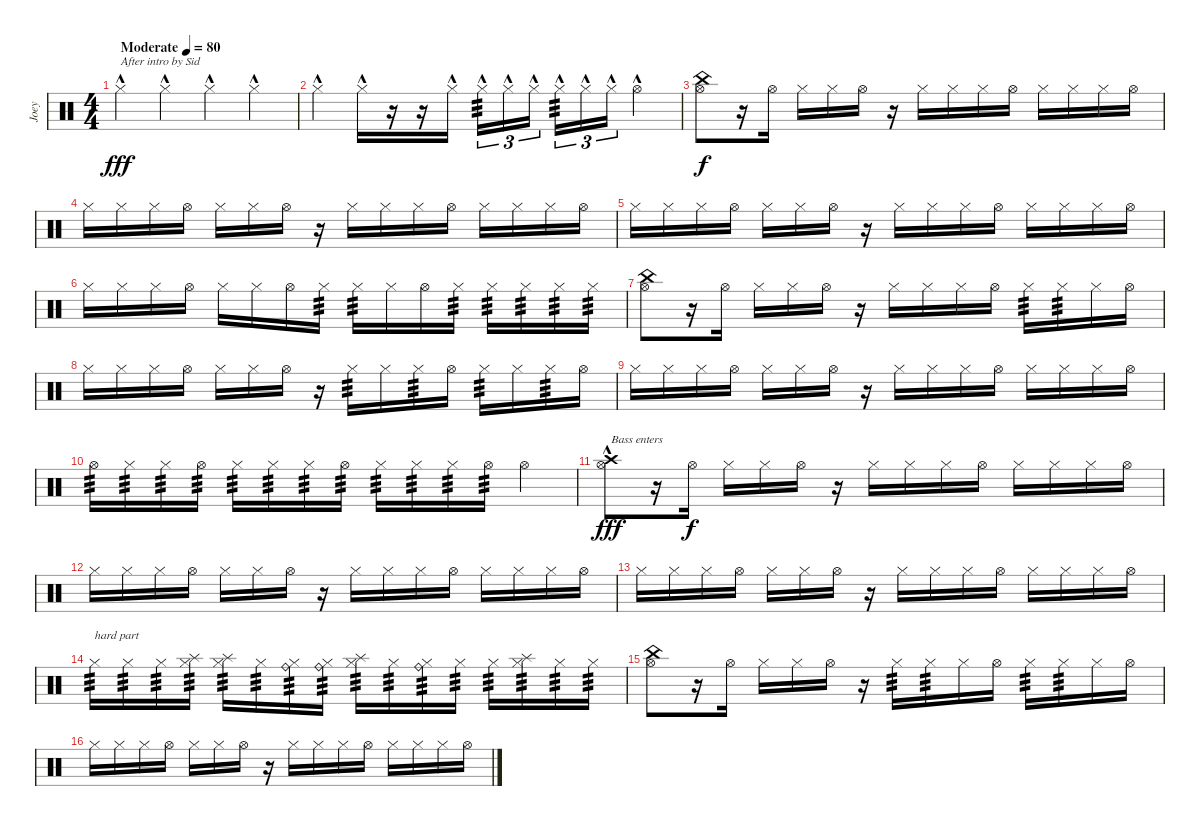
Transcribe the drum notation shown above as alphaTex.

\track ("Joey" "Joey") {instrument percussion}
\staff {score}
\articulation defaults
\ts (4 4)
\tempo (80 "Moderate")
\clef neutral
\ks c "Hi-Hat (closed)"{hac}.4{txt "After intro by Sid" dy fff} "Hi-Hat (closed)"{hac}.4 "Hi-Hat (closed)"{hac}.4 "Hi-Hat (closed)"{hac}.4
|
"Hi-Hat (closed)"{hac}.4 "Hi-Hat (closed)"{hac}.16 r.16 r.16 "Hi-Hat (closed)"{hac}.16 "Hi-Hat (closed)"{hac}.16{tu (3 2) tp 3} "Hi-Hat (closed)"{hac}.16{tu (3 2)} "Hi-Hat (closed)"{hac}.16{tu (3 2) beam splitsecondary} "Hi-Hat (closed)"{hac}.16{tu (3 2) tp 3} "Hi-Hat (closed)"{hac}.16{tu (3 2)} "Hi-Hat (closed)"{hac}.16{tu (3 2)} "Hi-Hat (open)"{hac}.4 |
("Hi-Hat (open)" "China (hit)").8{dy f} r.16 "Hi-Hat (open)".16 "Hi-Hat (closed)".16 "Hi-Hat (closed)".16 "Hi-Hat (open)".16 r.16 "Hi-Hat (closed)".16 "Hi-Hat (closed)".16 "Hi-Hat (closed)".16 "Hi-Hat (open)".16 "Hi-Hat (closed)".16 "Hi-Hat (closed)".16 "Hi-Hat (closed)".16 "Hi-Hat (open)".16 |
"Hi-Hat (closed)".16 "Hi-Hat (closed)".16 "Hi-Hat (closed)".16 "Hi-Hat (open)".16 "Hi-Hat (closed)".16 "Hi-Hat (closed)".16 "Hi-Hat (open)".16 r.16 "Hi-Hat (closed)".16 "Hi-Hat (closed)".16 "Hi-Hat (closed)".16 "Hi-Hat (open)".16 "Hi-Hat (closed)".16 "Hi-Hat (closed)".16 "Hi-Hat (closed)".16 "Hi-Hat (open)".16 |
"Hi-Hat (closed)".16 "Hi-Hat (closed)".16 "Hi-Hat (closed)".16 "Hi-Hat (open)".16 "Hi-Hat (closed)".16 "Hi-Hat (closed)".16 "Hi-Hat (open)".16 r.16 "Hi-Hat (closed)".16 "Hi-Hat (closed)".16 "Hi-Hat (closed)".16 "Hi-Hat (open)".16 "Hi-Hat (closed)".16 "Hi-Hat (closed)".16 "Hi-Hat (closed)".16 "Hi-Hat (open)".16 |
"Hi-Hat (closed)".16 "Hi-Hat (closed)".16 "Hi-Hat (closed)".16 "Hi-Hat (open)".16 "Hi-Hat (closed)".16 "Hi-Hat (closed)".16 "Hi-Hat (open)".16 "Hi-Hat (closed)".16{tp 3} "Hi-Hat (closed)".16{tp 3} "Hi-Hat (closed)".16 "Hi-Hat (open)".16 "Hi-Hat (closed)".16{tp 3} "Hi-Hat (closed)".16{tp 3} "Hi-Hat (closed)".16{tp 3} "Hi-Hat (closed)".16{tp 3} "Hi-Hat (closed)".16{tp 3} |
("Hi-Hat (open)" "China (hit)").8 r.16 "Hi-Hat (open)".16 "Hi-Hat (closed)".16 "Hi-Hat (closed)".16 "Hi-Hat (open)".16 r.16 "Hi-Hat (closed)".16 "Hi-Hat (closed)".16 "Hi-Hat (closed)".16 "Hi-Hat (open)".16 "Hi-Hat (closed)".16{tp 3} "Hi-Hat (closed)".16{tp 3} "Hi-Hat (closed)".16 "Hi-Hat (open)".16 |
"Hi-Hat (closed)".16 "Hi-Hat (closed)".16 "Hi-Hat (closed)".16 "Hi-Hat (open)".16 "Hi-Hat (closed)".16 "Hi-Hat (closed)".16 "Hi-Hat (open)".16 r.16 "Hi-Hat (closed)".16{tp 3} "Hi-Hat (closed)".16 "Hi-Hat (closed)".16{tp 3} "Hi-Hat (open)".16 "Hi-Hat (closed)".16{tp 3} "Hi-Hat (closed)".16 "Hi-Hat (closed)".16{tp 3} "Hi-Hat (open)".16 |
"Hi-Hat (closed)".16 "Hi-Hat (closed)".16 "Hi-Hat (closed)".16 "Hi-Hat (open)".16 "Hi-Hat (closed)".16 "Hi-Hat (closed)".16 "Hi-Hat (open)".16 r.16 "Hi-Hat (closed)".16 "Hi-Hat (closed)".16 "Hi-Hat (closed)".16 "Hi-Hat (open)".16 "Hi-Hat (closed)".16 "Hi-Hat (closed)".16 "Hi-Hat (closed)".16 "Hi-Hat (open)".16 |
"Hi-Hat (open)".16{tp 3} "Hi-Hat (closed)".16{tp 3} "Hi-Hat (closed)".16{tp 3} "Hi-Hat (open)".16{tp 3} "Hi-Hat (closed)".16{tp 3} "Hi-Hat (closed)".16{tp 3} "Hi-Hat (closed)".16{tp 3} "Hi-Hat (open)".16{tp 3} "Hi-Hat (closed)".16{tp 3} "Hi-Hat (closed)".16{tp 3} "Hi-Hat (closed)".16{tp 3} "Hi-Hat (open)".16{tp 3} "Hi-Hat (open)".4 |
("Hi-Hat (open)" "Crash high (hit)"{hac}).8{txt "Bass enters" dy fff} r.16 "Hi-Hat (open)".16{dy f} "Hi-Hat (closed)".16 "Hi-Hat (closed)".16 "Hi-Hat (open)".16 r.16 "Hi-Hat (closed)".16 "Hi-Hat (closed)".16 "Hi-Hat (closed)".16 "Hi-Hat (open)".16 "Hi-Hat (closed)".16 "Hi-Hat (closed)".16 "Hi-Hat (closed)".16 "Hi-Hat (open)".16 |
"Hi-Hat (closed)".16 "Hi-Hat (closed)".16 "Hi-Hat (closed)".16 "Hi-Hat (open)".16 "Hi-Hat (closed)".16 "Hi-Hat (closed)".16 "Hi-Hat (open)".16 r.16 "Hi-Hat (closed)".16 "Hi-Hat (closed)".16 "Hi-Hat (closed)".16 "Hi-Hat (open)".16 "Hi-Hat (closed)".16 "Hi-Hat (closed)".16 "Hi-Hat (closed)".16 "Hi-Hat (open)".16 |
"Hi-Hat (closed)".16 "Hi-Hat (closed)".16 "Hi-Hat (closed)".16 "Hi-Hat (open)".16 "Hi-Hat (closed)".16 "Hi-Hat (closed)".16 "Hi-Hat (open)".16 r.16 "Hi-Hat (closed)".16 "Hi-Hat (closed)".16 "Hi-Hat (closed)".16 "Hi-Hat (open)".16 "Hi-Hat (closed)".16 "Hi-Hat (closed)".16 "Hi-Hat (closed)".16 "Hi-Hat (open)".16 |
"Hi-Hat (closed)".16{txt "hard part" tp 3} "Hi-Hat (closed)".16{tp 3} "Hi-Hat (closed)".16{tp 3} ("Hi-Hat (closed)" "Splash (hit)").16{tp 3} ("Hi-Hat (closed)" "Splash (hit)").16{tp 3} "Hi-Hat (closed)".16{tp 3} ("Hi-Hat (closed)" "Ride (bell)").16{tp 3} ("Hi-Hat (closed)" "Ride (bell)").16{tp 3} ("Hi-Hat (closed)" "Splash (hit)").16{tp 3} "Hi-Hat (closed)".16{tp 3} ("Hi-Hat (closed)" "Ride (bell)").16{tp 3} "Hi-Hat (closed)".16{tp 3} "Hi-Hat (closed)".16{tp 3} ("Hi-Hat (closed)" "Splash (hit)").16{tp 3} "Hi-Hat (closed)".16{tp 3} "Hi-Hat (closed)".16{tp 3} |
("Hi-Hat (open)" "China (hit)").8 r.16 "Hi-Hat (open)".16 "Hi-Hat (closed)".16 "Hi-Hat (closed)".16 "Hi-Hat (open)".16 r.16 "Hi-Hat (closed)".16{tp 3} "Hi-Hat (closed)".16{tp 3} "Hi-Hat (closed)".16 "Hi-Hat (open)".16 "Hi-Hat (closed)".16{tp 3} "Hi-Hat (closed)".16{tp 3} "Hi-Hat (closed)".16 "Hi-Hat (open)".16 |
"Hi-Hat (closed)".16 "Hi-Hat (closed)".16 "Hi-Hat (closed)".16 "Hi-Hat (open)".16 "Hi-Hat (closed)".16 "Hi-Hat (closed)".16 "Hi-Hat (open)".16 r.16 "Hi-Hat (closed)".16 "Hi-Hat (closed)".16 "Hi-Hat (closed)".16 "Hi-Hat (open)".16 "Hi-Hat (closed)".16 "Hi-Hat (closed)".16 "Hi-Hat (closed)".16 "Hi-Hat (open)".16
